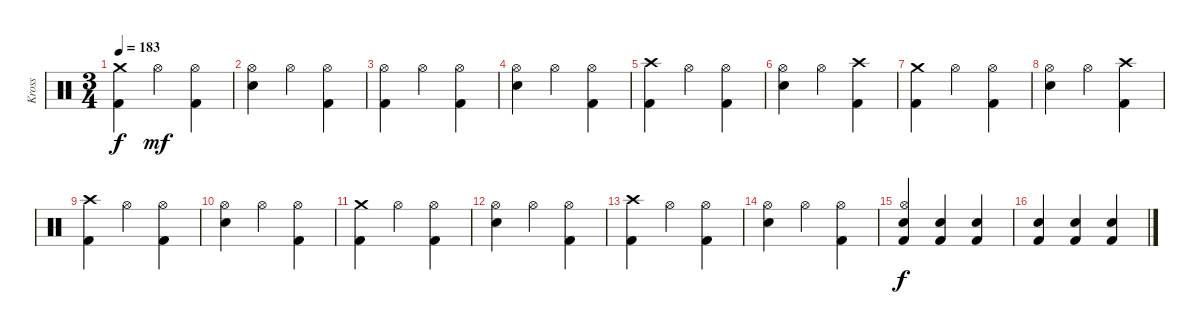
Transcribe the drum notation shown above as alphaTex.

\track ("Kross" "Kross") {instrument percussion}
\staff {score}
\articulation defaults
\ts (3 4)
\tempo 183
\clef neutral
\ks c
("Crash medium (hit)" "Kick (hit) 2").4{dy f} "Hi-Hat (open)".4{dy mf} ("Hi-Hat (open)" "Kick (hit) 2").4 |
("Hi-Hat (open)" "Electric Snare (hit)").4 "Hi-Hat (open)".4 ("Hi-Hat (open)" "Kick (hit) 2").4 |
("Hi-Hat (open)" "Kick (hit) 2").4 "Hi-Hat (open)".4 ("Hi-Hat (open)" "Kick (hit) 2").4 |
("Hi-Hat (open)" "Electric Snare (hit)").4 "Hi-Hat (open)".4 ("Hi-Hat (open)" "Kick (hit) 2").4 |
("Crash high (hit)" "Kick (hit) 2").4 "Hi-Hat (open)".4 ("Hi-Hat (open)" "Kick (hit) 2").4 |
("Hi-Hat (open)" "Electric Snare (hit)").4 "Hi-Hat (open)".4 ("Crash high (hit)" "Kick (hit) 2").4 |
("Crash medium (hit)" "Kick (hit) 2").4 "Hi-Hat (open)".4 ("Hi-Hat (open)" "Kick (hit) 2").4 |
("Hi-Hat (open)" "Electric Snare (hit)").4 "Hi-Hat (open)".4 ("Crash high (hit)" "Kick (hit) 2").4 |
("Crash high (hit)" "Kick (hit) 2").4 "Hi-Hat (open)".4 ("Hi-Hat (open)" "Kick (hit) 2").4 |
("Hi-Hat (open)" "Electric Snare (hit)").4 "Hi-Hat (open)".4 ("Hi-Hat (open)" "Kick (hit) 2").4 |
("Crash medium (hit)" "Kick (hit) 2").4 "Hi-Hat (open)".4 ("Hi-Hat (open)" "Kick (hit) 2").4 |
("Hi-Hat (open)" "Electric Snare (hit)").4 "Hi-Hat (open)".4 ("Hi-Hat (open)" "Kick (hit) 2").4 |
("Crash high (hit)" "Kick (hit) 2").4 "Hi-Hat (open)".4 ("Hi-Hat (open)" "Kick (hit) 2").4 |
("Hi-Hat (open)" "Electric Snare (hit)").4 "Hi-Hat (open)".4 ("Hi-Hat (open)" "Kick (hit) 2").4 |
("Hi-Hat (open)" "Electric Snare (hit)" "Kick (hit) 2").4{dy f} ("Electric Snare (hit)" "Kick (hit) 2").4 ("Electric Snare (hit)" "Kick (hit) 2").4 |
("Electric Snare (hit)" "Kick (hit) 2").4 ("Electric Snare (hit)" "Kick (hit) 2").4 ("Electric Snare (hit)" "Kick (hit) 2").4
